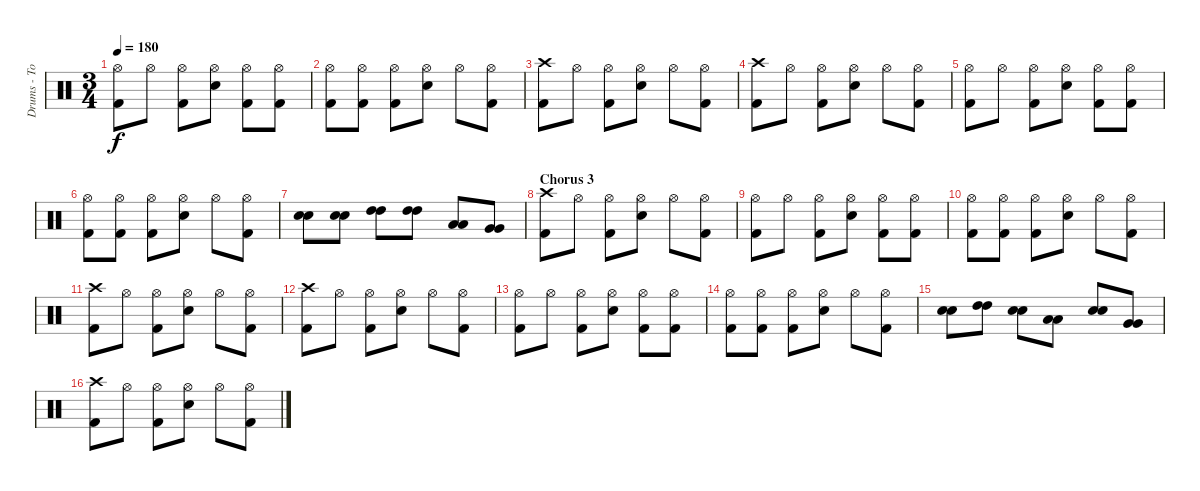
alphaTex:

\track ("Drums - Tomas" "Drums - To") {instrument percussion}
\staff {score}
\articulation defaults
\ts (3 4)
\tempo 180
\clef neutral
\ks c
("Hi-Hat (open)" "Kick (hit) 2").8{dy f} "Hi-Hat (open)".8 ("Hi-Hat (open)" "Kick (hit) 2").8 ("Hi-Hat (open)" "Electric Snare (hit)").8 ("Hi-Hat (open)" "Kick (hit) 2").8 ("Hi-Hat (open)" "Kick (hit) 2").8 |
("Hi-Hat (open)" "Kick (hit) 2").8 ("Hi-Hat (open)" "Kick (hit) 2").8 ("Hi-Hat (open)" "Kick (hit) 2").8 ("Hi-Hat (open)" "Electric Snare (hit)").8 "Hi-Hat (open)".8 ("Hi-Hat (open)" "Kick (hit) 2").8 |
("Crash high (hit)" "Kick (hit) 2").8 "Hi-Hat (open)".8 ("Hi-Hat (open)" "Kick (hit) 2").8 ("Hi-Hat (open)" "Electric Snare (hit)").8 "Hi-Hat (open)".8 ("Hi-Hat (open)" "Kick (hit) 2").8 |
("Crash high (hit)" "Kick (hit) 2").8 "Hi-Hat (open)".8 ("Hi-Hat (open)" "Kick (hit) 2").8 ("Hi-Hat (open)" "Electric Snare (hit)").8 "Hi-Hat (open)".8 ("Hi-Hat (open)" "Kick (hit) 2").8 |
("Hi-Hat (open)" "Kick (hit) 2").8 "Hi-Hat (open)".8 ("Hi-Hat (open)" "Kick (hit) 2").8 ("Hi-Hat (open)" "Electric Snare (hit)").8 ("Hi-Hat (open)" "Kick (hit) 2").8 ("Hi-Hat (open)" "Kick (hit) 2").8 |
("Hi-Hat (open)" "Kick (hit) 2").8 ("Hi-Hat (open)" "Kick (hit) 2").8 ("Hi-Hat (open)" "Kick (hit) 2").8 ("Hi-Hat (open)" "Electric Snare (hit)").8 "Hi-Hat (open)".8 ("Hi-Hat (open)" "Kick (hit) 2").8 |
("Electric Snare (hit)" "Electric Snare (hit)").8 ("Electric Snare (hit)" "Electric Snare (hit)").8 ("High Tom (hit)" "High Tom (hit)").8 ("High Tom (hit)" "High Tom (hit)").8 ("Low Tom (hit)" "Low Tom (hit)").8 ("Very Low Tom (hit)" "Very Low Tom (hit)").8 |
\section ("" "Chorus 3")
("Crash high (hit)" "Kick (hit) 2").8 "Hi-Hat (open)".8 ("Hi-Hat (open)" "Kick (hit) 2").8 ("Hi-Hat (open)" "Electric Snare (hit)").8 "Hi-Hat (open)".8 ("Hi-Hat (open)" "Kick (hit) 2").8 |
("Hi-Hat (open)" "Kick (hit) 2").8 "Hi-Hat (open)".8 ("Hi-Hat (open)" "Kick (hit) 2").8 ("Hi-Hat (open)" "Electric Snare (hit)").8 ("Hi-Hat (open)" "Kick (hit) 2").8 ("Hi-Hat (open)" "Kick (hit) 2").8 |
("Hi-Hat (open)" "Kick (hit) 2").8 ("Hi-Hat (open)" "Kick (hit) 2").8 ("Hi-Hat (open)" "Kick (hit) 2").8 ("Hi-Hat (open)" "Electric Snare (hit)").8 "Hi-Hat (open)".8 ("Hi-Hat (open)" "Kick (hit) 2").8 |
("Crash high (hit)" "Kick (hit) 2").8 "Hi-Hat (open)".8 ("Hi-Hat (open)" "Kick (hit) 2").8 ("Hi-Hat (open)" "Electric Snare (hit)").8 "Hi-Hat (open)".8 ("Hi-Hat (open)" "Kick (hit) 2").8 |
("Crash high (hit)" "Kick (hit) 2").8 "Hi-Hat (open)".8 ("Hi-Hat (open)" "Kick (hit) 2").8 ("Hi-Hat (open)" "Electric Snare (hit)").8 "Hi-Hat (open)".8 ("Hi-Hat (open)" "Kick (hit) 2").8 |
("Hi-Hat (open)" "Kick (hit) 2").8 "Hi-Hat (open)".8 ("Hi-Hat (open)" "Kick (hit) 2").8 ("Hi-Hat (open)" "Electric Snare (hit)").8 ("Hi-Hat (open)" "Kick (hit) 2").8 ("Hi-Hat (open)" "Kick (hit) 2").8 |
("Hi-Hat (open)" "Kick (hit) 2").8 ("Hi-Hat (open)" "Kick (hit) 2").8 ("Hi-Hat (open)" "Kick (hit) 2").8 ("Hi-Hat (open)" "Electric Snare (hit)").8 "Hi-Hat (open)".8 ("Hi-Hat (open)" "Kick (hit) 2").8 |
("Electric Snare (hit)" "Electric Snare (hit)").8 ("High Tom (hit)" "High Tom (hit)").8 ("Electric Snare (hit)" "Electric Snare (hit)").8 ("Low Tom (hit)" "Low Tom (hit)").8 ("Electric Snare (hit)" "Electric Snare (hit)").8 ("Very Low Tom (hit)" "Very Low Tom (hit)").8 |
("Crash high (hit)" "Kick (hit) 2").8 "Hi-Hat (open)".8 ("Hi-Hat (open)" "Kick (hit) 2").8 ("Hi-Hat (open)" "Electric Snare (hit)").8 "Hi-Hat (open)".8 ("Hi-Hat (open)" "Kick (hit) 2").8
